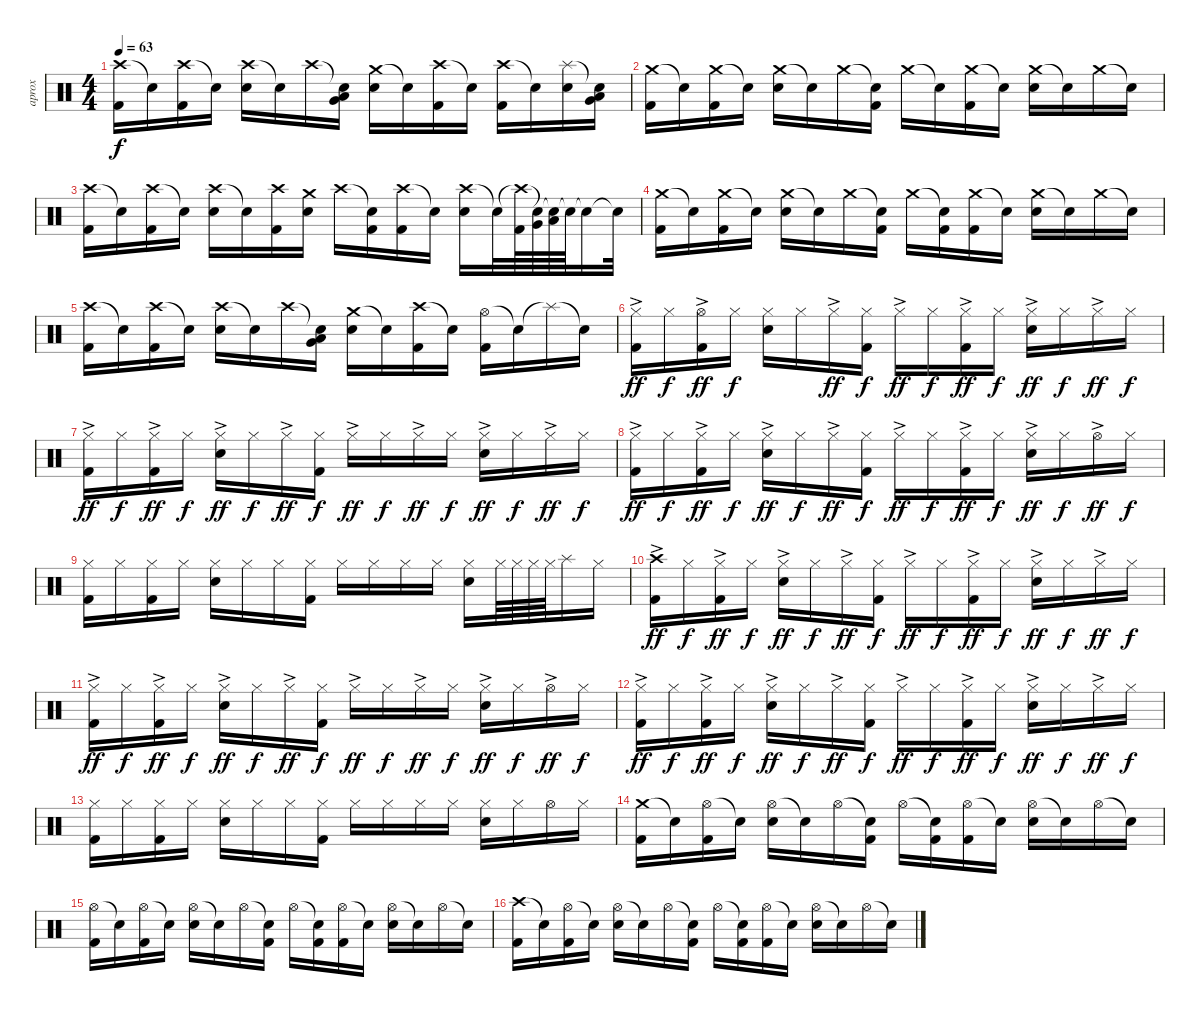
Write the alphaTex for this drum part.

\track ("aprox" "aprox") {instrument percussion}
\staff {score}
\articulation defaults
\ts (4 4)
\tempo 63
\clef neutral
\ks c
("Crash high (hit)" "Kick (hit) 2").16{dy f} "Snare (hit)"{t}.16 ("Crash high (hit)" "Kick (hit) 2").16 "Snare (hit)"{t}.16 ("Crash high (hit)" "Electric Snare (hit)").16 "Snare (hit)"{t}.16 "Crash high (hit)".16 ("Snare (hit)"{t} "Low Floor Tom (hit)" "Very Low Tom (hit)").16 ("Crash medium (hit)" "Electric Snare (hit)").16 "Snare (hit)"{t}.16 ("Crash high (hit)" "Kick (hit) 2").16 "Snare (hit)"{t}.16 ("Crash high (hit)" "Kick (hit) 2").16 "Snare (hit)"{t}.16 ("Splash (hit)" "Electric Snare (hit)").16 ("Snare (hit)"{t} "Low Floor Tom (hit)" "Very Low Tom (hit)").16 |
("Crash medium (hit)" "Kick (hit) 2").16 "Snare (hit)"{t}.16 ("Crash medium (hit)" "Kick (hit) 2").16 "Snare (hit)"{t}.16 ("Crash medium (hit)" "Electric Snare (hit)").16 "Snare (hit)"{t}.16 "Crash medium (hit)".16 ("Snare (hit)"{t} "Kick (hit) 2").16 "Crash medium (hit)".16 "Snare (hit)"{t}.16 ("Crash medium (hit)" "Kick (hit) 2").16 "Snare (hit)"{t}.16 ("Crash medium (hit)" "Electric Snare (hit)").16 "Snare (hit)"{t}.16 "Crash medium (hit)".16 "Snare (hit)"{t}.16 |
("Crash high (hit)" "Kick (hit) 2").16 "Snare (hit)"{t}.16 ("Crash high (hit)" "Kick (hit) 2").16 "Snare (hit)"{t}.16 ("Crash high (hit)" "Electric Snare (hit)").16 "Snare (hit)"{t}.16 ("Crash high (hit)" "Kick (hit) 2").16 ("Crash medium (hit)" "Electric Snare (hit)").16 "Crash high (hit)".16 ("Snare (hit)"{t} "Kick (hit) 2").16 ("Crash high (hit)" "Kick (hit) 2").16 "Snare (hit)"{t}.16 ("Crash high (hit)" "Electric Snare (hit)").16 "Snare (hit)"{t}.32 ("Crash high (hit)"{t} "Kick (hit) 2").64 ("Snare (hit)"{t} "Very Low Tom (hit)").64 ("Snare (hit)"{t} "Low Floor Tom (hit)").64 "Snare (hit)"{t}.64 "Snare (hit)"{t}.16 "Snare (hit)"{t}.32 |
("Crash medium (hit)" "Kick (hit) 2").16 "Snare (hit)"{t}.16 ("Crash medium (hit)" "Kick (hit) 2").16 "Snare (hit)"{t}.16 ("Crash medium (hit)" "Electric Snare (hit)").16 "Snare (hit)"{t}.16 "Crash medium (hit)".16 ("Snare (hit)"{t} "Kick (hit) 2").16 "Crash medium (hit)".16 ("Snare (hit)"{t} "Kick (hit) 2").16 ("Crash medium (hit)" "Kick (hit) 2").16 "Snare (hit)"{t}.16 ("Crash medium (hit)" "Electric Snare (hit)").16 "Snare (hit)"{t}.16 "Crash medium (hit)".16 "Snare (hit)"{t}.16 |
("Crash high (hit)" "Kick (hit) 2").16 "Snare (hit)"{t}.16 ("Crash high (hit)" "Kick (hit) 2").16 "Snare (hit)"{t}.16 ("Crash high (hit)" "Electric Snare (hit)").16 "Snare (hit)"{t}.16 "Crash high (hit)".16 ("Snare (hit)"{t} "Low Floor Tom (hit)" "Very Low Tom (hit)").16 ("Crash medium (hit)" "Electric Snare (hit)").16 "Snare (hit)"{t}.16 ("Crash high (hit)" "Kick (hit) 2").16 "Snare (hit)"{t}.16 ("Hi-Hat (open)" "Kick (hit) 2").16 "Snare (hit)"{t}.16 "Splash (hit)"{t}.16 "Snare (hit)"{t}.16 |
("Hi-Hat (closed)"{ac} "Kick (hit) 2").16{dy ff} "Hi-Hat (closed)".16{dy f} ("Hi-Hat (open)"{ac} "Kick (hit) 2").16{dy ff} "Hi-Hat (closed)".16{dy f} ("Hi-Hat (closed)" "Electric Snare (hit)").16 "Hi-Hat (closed)".16 "Hi-Hat (closed)"{ac}.16{dy ff} ("Hi-Hat (closed)" "Kick (hit) 2").16{dy f} "Hi-Hat (closed)"{ac}.16{dy ff} "Hi-Hat (closed)".16{dy f} ("Hi-Hat (closed)"{ac} "Kick (hit) 2").16{dy ff} "Hi-Hat (closed)".16{dy f} ("Hi-Hat (closed)"{ac} "Electric Snare (hit)").16{dy ff} "Hi-Hat (closed)".16{dy f} "Hi-Hat (closed)"{ac}.16{dy ff} "Hi-Hat (closed)".16{dy f} |
("Hi-Hat (closed)"{ac} "Kick (hit) 2").16{dy ff} "Hi-Hat (closed)".16{dy f} ("Hi-Hat (closed)"{ac} "Kick (hit) 2").16{dy ff} "Hi-Hat (closed)".16{dy f} ("Hi-Hat (closed)"{ac} "Electric Snare (hit)").16{dy ff} "Hi-Hat (closed)".16{dy f} "Hi-Hat (closed)"{ac}.16{dy ff} ("Hi-Hat (closed)" "Kick (hit) 2").16{dy f} "Hi-Hat (closed)"{ac}.16{dy ff} "Hi-Hat (closed)".16{dy f} "Hi-Hat (closed)"{ac}.16{dy ff} "Hi-Hat (closed)".16{dy f} ("Hi-Hat (closed)"{ac} "Electric Snare (hit)").16{dy ff} "Hi-Hat (closed)".16{dy f} "Hi-Hat (closed)"{ac}.16{dy ff} "Hi-Hat (closed)".16{dy f} |
("Hi-Hat (closed)"{ac} "Kick (hit) 2").16{dy ff} "Hi-Hat (closed)".16{dy f} ("Hi-Hat (closed)"{ac} "Kick (hit) 2").16{dy ff} "Hi-Hat (closed)".16{dy f} ("Hi-Hat (closed)"{ac} "Electric Snare (hit)").16{dy ff} "Hi-Hat (closed)".16{dy f} "Hi-Hat (closed)"{ac}.16{dy ff} ("Hi-Hat (closed)" "Kick (hit) 2").16{dy f} "Hi-Hat (closed)"{ac}.16{dy ff} "Hi-Hat (closed)".16{dy f} ("Hi-Hat (closed)"{ac} "Kick (hit) 2").16{dy ff} "Hi-Hat (closed)".16{dy f} ("Hi-Hat (closed)"{ac} "Electric Snare (hit)").16{dy ff} "Hi-Hat (closed)".16{dy f} "Hi-Hat (open)"{ac}.16{dy ff} "Hi-Hat (closed)".16{dy f} |
("Hi-Hat (closed)" "Kick (hit) 2").16 "Hi-Hat (closed)".16 ("Hi-Hat (closed)" "Kick (hit) 2").16 "Hi-Hat (closed)".16 ("Hi-Hat (closed)" "Electric Snare (hit)").16 "Hi-Hat (closed)".16 "Hi-Hat (closed)".16 ("Hi-Hat (closed)" "Kick (hit) 2").16 "Hi-Hat (closed)".16 "Hi-Hat (closed)".16 "Hi-Hat (closed)".16 "Hi-Hat (closed)".16 ("Hi-Hat (closed)" "Electric Snare (hit)").16 "Hi-Hat (closed)".64 "Hi-Hat (closed)".64 "Hi-Hat (closed)".64 "Hi-Hat (closed)".64 "Splash (hit)".16 "Hi-Hat (closed)".16 |
("Crash high (hit)"{ac} "Kick (hit) 2").16{dy ff} "Hi-Hat (closed)".16{dy f} ("Hi-Hat (closed)"{ac} "Kick (hit) 2").16{dy ff} "Hi-Hat (closed)".16{dy f} ("Hi-Hat (closed)"{ac} "Electric Snare (hit)").16{dy ff} "Hi-Hat (closed)".16{dy f} "Hi-Hat (closed)"{ac}.16{dy ff} ("Hi-Hat (closed)" "Kick (hit) 2").16{dy f} "Hi-Hat (closed)"{ac}.16{dy ff} "Hi-Hat (closed)".16{dy f} ("Hi-Hat (closed)"{ac} "Kick (hit) 2").16{dy ff} "Hi-Hat (closed)".16{dy f} ("Hi-Hat (closed)"{ac} "Electric Snare (hit)").16{dy ff} "Hi-Hat (closed)".16{dy f} "Hi-Hat (closed)"{ac}.16{dy ff} "Hi-Hat (closed)".16{dy f} |
("Hi-Hat (closed)"{ac} "Kick (hit) 2").16{dy ff} "Hi-Hat (closed)".16{dy f} ("Hi-Hat (closed)"{ac} "Kick (hit) 2").16{dy ff} "Hi-Hat (closed)".16{dy f} ("Hi-Hat (closed)"{ac} "Electric Snare (hit)").16{dy ff} "Hi-Hat (closed)".16{dy f} "Hi-Hat (closed)"{ac}.16{dy ff} ("Hi-Hat (closed)" "Kick (hit) 2").16{dy f} "Hi-Hat (closed)"{ac}.16{dy ff} "Hi-Hat (closed)".16{dy f} "Hi-Hat (closed)"{ac}.16{dy ff} "Hi-Hat (closed)".16{dy f} ("Hi-Hat (closed)"{ac} "Electric Snare (hit)").16{dy ff} "Hi-Hat (closed)".16{dy f} "Hi-Hat (open)"{ac}.16{dy ff} "Hi-Hat (closed)".16{dy f} |
("Hi-Hat (closed)"{ac} "Kick (hit) 2").16{dy ff} "Hi-Hat (closed)".16{dy f} ("Hi-Hat (closed)"{ac} "Kick (hit) 2").16{dy ff} "Hi-Hat (closed)".16{dy f} ("Hi-Hat (closed)"{ac} "Electric Snare (hit)").16{dy ff} "Hi-Hat (closed)".16{dy f} "Hi-Hat (closed)"{ac}.16{dy ff} ("Hi-Hat (closed)" "Kick (hit) 2").16{dy f} "Hi-Hat (closed)"{ac}.16{dy ff} "Hi-Hat (closed)".16{dy f} ("Hi-Hat (closed)"{ac} "Kick (hit) 2").16{dy ff} "Hi-Hat (closed)".16{dy f} ("Hi-Hat (closed)"{ac} "Electric Snare (hit)").16{dy ff} "Hi-Hat (closed)".16{dy f} "Hi-Hat (closed)"{ac}.16{dy ff} "Hi-Hat (closed)".16{dy f} |
("Hi-Hat (closed)" "Kick (hit) 2").16 "Hi-Hat (closed)".16 ("Hi-Hat (closed)" "Kick (hit) 2").16 "Hi-Hat (closed)".16 ("Hi-Hat (closed)" "Electric Snare (hit)").16 "Hi-Hat (closed)".16 "Hi-Hat (closed)".16 ("Hi-Hat (closed)" "Kick (hit) 2").16 "Hi-Hat (closed)".16 "Hi-Hat (closed)".16 "Hi-Hat (closed)".16 "Hi-Hat (closed)".16 ("Hi-Hat (closed)" "Electric Snare (hit)").16 "Hi-Hat (closed)".16 "Hi-Hat (open)".16 "Hi-Hat (closed)".16 |
("Crash medium (hit)" "Kick (hit) 2").16 "Snare (hit)"{t}.16 ("Hi-Hat (open)" "Kick (hit) 2").16 "Snare (hit)"{t}.16 ("Hi-Hat (open)" "Electric Snare (hit)").16 "Snare (hit)"{t}.16 "Hi-Hat (open)".16 ("Snare (hit)"{t} "Kick (hit) 2").16 "Hi-Hat (open)".16 ("Snare (hit)"{t} "Kick (hit) 2").16 ("Hi-Hat (open)" "Kick (hit) 2").16 "Snare (hit)"{t}.16 ("Hi-Hat (open)" "Electric Snare (hit)").16 "Snare (hit)"{t}.16 "Hi-Hat (open)".16 "Snare (hit)"{t}.16 |
("Hi-Hat (open)" "Kick (hit) 2").16 "Snare (hit)"{t}.16 ("Hi-Hat (open)" "Kick (hit) 2").16 "Snare (hit)"{t}.16 ("Hi-Hat (open)" "Electric Snare (hit)").16 "Snare (hit)"{t}.16 "Hi-Hat (open)".16 ("Snare (hit)"{t} "Kick (hit) 2").16 "Hi-Hat (open)".16 ("Snare (hit)"{t} "Kick (hit) 2").16 ("Hi-Hat (open)" "Kick (hit) 2").16 "Snare (hit)"{t}.16 ("Hi-Hat (open)" "Electric Snare (hit)").16 "Snare (hit)"{t}.16 "Hi-Hat (open)".16 "Snare (hit)"{t}.16 |
("Crash high (hit)" "Kick (hit) 2").16 "Snare (hit)"{t}.16 ("Hi-Hat (open)" "Kick (hit) 2").16 "Snare (hit)"{t}.16 ("Hi-Hat (open)" "Electric Snare (hit)").16 "Snare (hit)"{t}.16 "Hi-Hat (open)".16 ("Snare (hit)"{t} "Kick (hit) 2").16 "Hi-Hat (open)".16 ("Snare (hit)"{t} "Kick (hit) 2").16 ("Hi-Hat (open)" "Kick (hit) 2").16 "Snare (hit)"{t}.16 ("Hi-Hat (open)" "Electric Snare (hit)").16 "Snare (hit)"{t}.16 "Hi-Hat (open)".16 "Snare (hit)"{t}.16
